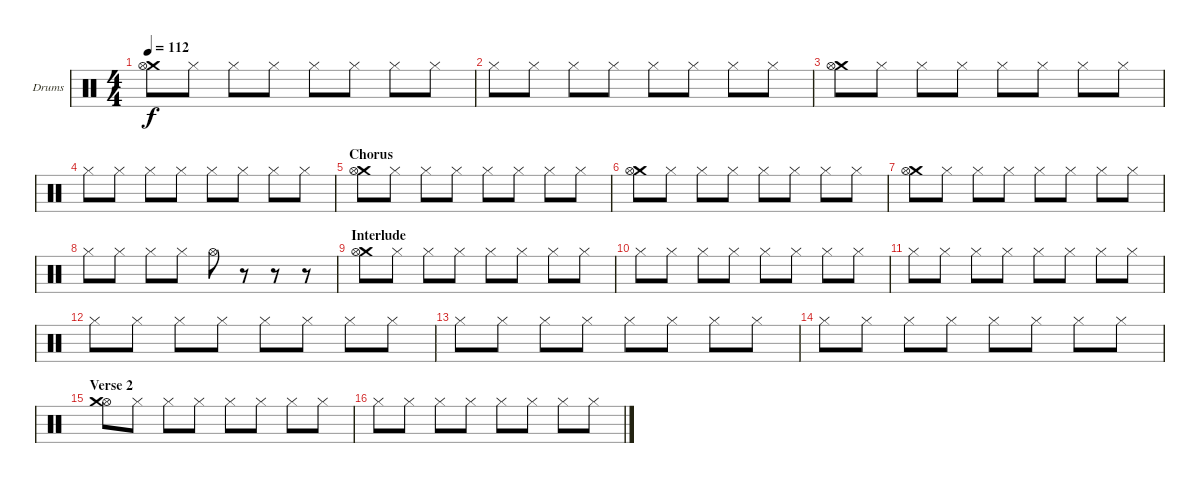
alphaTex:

\bracketExtendMode groupsimilarinstruments
\firstSystemTrackNameOrientation horizontal
\otherSystemsTrackNameOrientation horizontal
\track ("Drumkit" "Drums") {instrument percussion}
\staff {score}
\articulation defaults
\ts (4 4)
\tempo 112
\clef neutral
\ks c
("Crash medium (hit)" "Hi-Hat (open)").8{dy f} "Hi-Hat (closed)".8 "Hi-Hat (closed)".8 "Hi-Hat (closed)".8 "Hi-Hat (closed)".8 "Hi-Hat (closed)".8 "Hi-Hat (closed)".8 "Hi-Hat (closed)".8 |
"Hi-Hat (closed)".8 "Hi-Hat (closed)".8 "Hi-Hat (closed)".8 "Hi-Hat (closed)".8 "Hi-Hat (closed)".8 "Hi-Hat (closed)".8 "Hi-Hat (closed)".8 "Hi-Hat (closed)".8 |
("Crash medium (hit)" "Hi-Hat (open)").8 "Hi-Hat (closed)".8 "Hi-Hat (closed)".8 "Hi-Hat (closed)".8 "Hi-Hat (closed)".8 "Hi-Hat (closed)".8 "Hi-Hat (closed)".8 "Hi-Hat (closed)".8 |
"Hi-Hat (closed)".8 "Hi-Hat (closed)".8 "Hi-Hat (closed)".8 "Hi-Hat (closed)".8 "Hi-Hat (closed)".8 "Hi-Hat (closed)".8 "Hi-Hat (closed)".8 "Hi-Hat (closed)".8 |
\section ("" "Chorus")
("Crash medium (hit)" "Hi-Hat (open)").8 "Hi-Hat (closed)".8 "Hi-Hat (closed)".8 "Hi-Hat (closed)".8 "Hi-Hat (closed)".8 "Hi-Hat (closed)".8 "Hi-Hat (closed)".8 "Hi-Hat (closed)".8 |
("Crash medium (hit)" "Hi-Hat (open)").8 "Hi-Hat (closed)".8 "Hi-Hat (closed)".8 "Hi-Hat (closed)".8 "Hi-Hat (closed)".8 "Hi-Hat (closed)".8 "Hi-Hat (closed)".8 "Hi-Hat (closed)".8 |
("Crash medium (hit)" "Hi-Hat (open)").8 "Hi-Hat (closed)".8 "Hi-Hat (closed)".8 "Hi-Hat (closed)".8 "Hi-Hat (closed)".8 "Hi-Hat (closed)".8 "Hi-Hat (closed)".8 "Hi-Hat (closed)".8 |
"Hi-Hat (closed)".8 "Hi-Hat (closed)".8 "Hi-Hat (closed)".8 "Hi-Hat (closed)".8 "Hi-Hat (open)".8 r.8 r.8 r.8 |
\section ("" "Interlude")
("Crash medium (hit)" "Hi-Hat (open)").8 "Hi-Hat (closed)".8 "Hi-Hat (closed)".8 "Hi-Hat (closed)".8 "Hi-Hat (closed)".8 "Hi-Hat (closed)".8 "Hi-Hat (closed)".8 "Hi-Hat (closed)".8 |
"Hi-Hat (closed)".8 "Hi-Hat (closed)".8 "Hi-Hat (closed)".8 "Hi-Hat (closed)".8 "Hi-Hat (closed)".8 "Hi-Hat (closed)".8 "Hi-Hat (closed)".8 "Hi-Hat (closed)".8 |
"Hi-Hat (closed)".8 "Hi-Hat (closed)".8 "Hi-Hat (closed)".8 "Hi-Hat (closed)".8 "Hi-Hat (closed)".8 "Hi-Hat (closed)".8 "Hi-Hat (closed)".8 "Hi-Hat (closed)".8 |
"Hi-Hat (closed)".8 "Hi-Hat (closed)".8 "Hi-Hat (closed)".8 "Hi-Hat (closed)".8 "Hi-Hat (closed)".8 "Hi-Hat (closed)".8 "Hi-Hat (closed)".8 "Hi-Hat (closed)".8 |
"Hi-Hat (closed)".8 "Hi-Hat (closed)".8 "Hi-Hat (closed)".8 "Hi-Hat (closed)".8 "Hi-Hat (closed)".8 "Hi-Hat (closed)".8 "Hi-Hat (closed)".8 "Hi-Hat (closed)".8 |
"Hi-Hat (closed)".8 "Hi-Hat (closed)".8 "Hi-Hat (closed)".8 "Hi-Hat (closed)".8 "Hi-Hat (closed)".8 "Hi-Hat (closed)".8 "Hi-Hat (closed)".8 "Hi-Hat (closed)".8 |
\section ("" "Verse 2")
("Hi-Hat (open)" "Crash medium (hit)").8 "Hi-Hat (closed)".8 "Hi-Hat (closed)".8 "Hi-Hat (closed)".8 "Hi-Hat (closed)".8 "Hi-Hat (closed)".8 "Hi-Hat (closed)".8 "Hi-Hat (closed)".8 |
"Hi-Hat (closed)".8 "Hi-Hat (closed)".8 "Hi-Hat (closed)".8 "Hi-Hat (closed)".8 "Hi-Hat (closed)".8 "Hi-Hat (closed)".8 "Hi-Hat (closed)".8 "Hi-Hat (closed)".8
